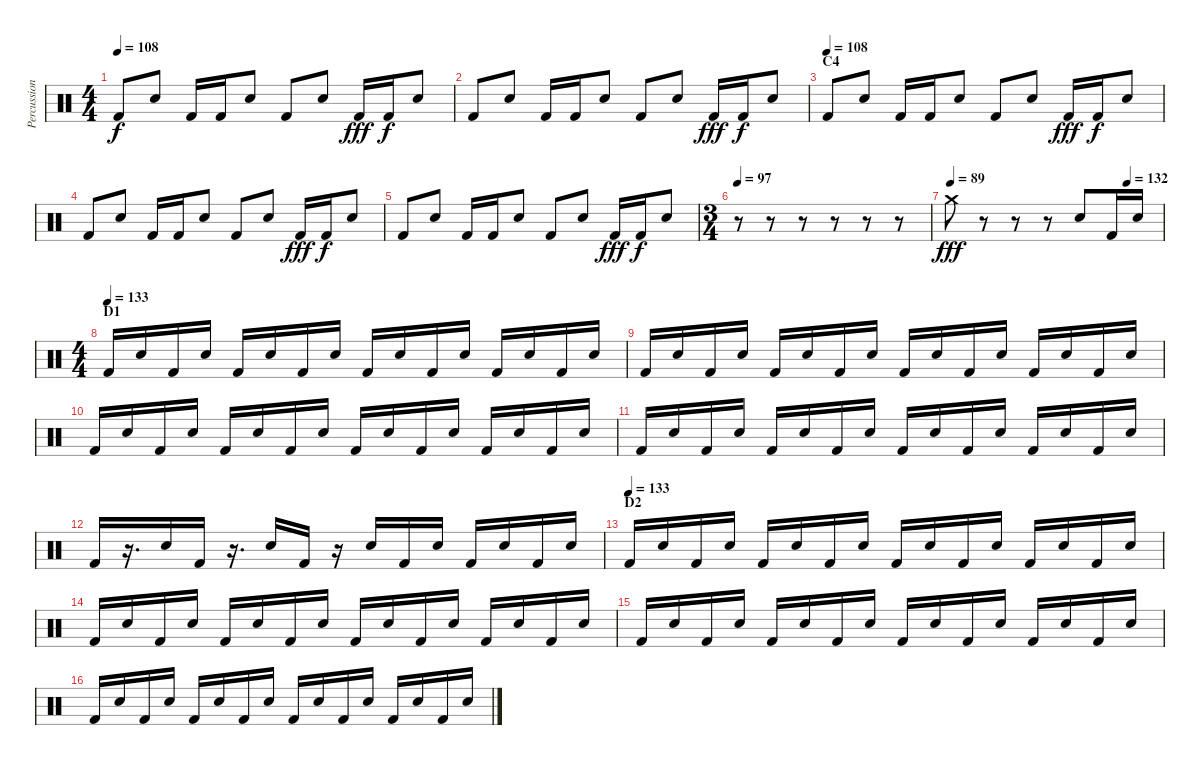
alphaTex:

\track ("Percussion" "Percussion") {instrument percussion}
\staff {score}
\articulation defaults
\ts (4 4)
\tempo 108
\clef neutral
\ks c "Kick (hit) 2".8{dy f} "Electric Snare (hit)".8 "Kick (hit) 2".16 "Kick (hit) 2".16 "Electric Snare (hit)".8 "Kick (hit) 2".8 "Electric Snare (hit)".8 "Kick (hit) 2".16{dy fff} "Kick (hit) 2".16{dy f} "Electric Snare (hit)".8
|
"Kick (hit) 2".8 "Electric Snare (hit)".8 "Kick (hit) 2".16 "Kick (hit) 2".16 "Electric Snare (hit)".8 "Kick (hit) 2".8 "Electric Snare (hit)".8 "Kick (hit) 2".16{dy fff} "Kick (hit) 2".16{dy f} "Electric Snare (hit)".8 |
\section ("" "C4")
\tempo (108)
"Kick (hit) 2".8 "Electric Snare (hit)".8 "Kick (hit) 2".16 "Kick (hit) 2".16 "Electric Snare (hit)".8 "Kick (hit) 2".8 "Electric Snare (hit)".8 "Kick (hit) 2".16{dy fff} "Kick (hit) 2".16{dy f} "Electric Snare (hit)".8 |
"Kick (hit) 2".8 "Electric Snare (hit)".8 "Kick (hit) 2".16 "Kick (hit) 2".16 "Electric Snare (hit)".8 "Kick (hit) 2".8 "Electric Snare (hit)".8 "Kick (hit) 2".16{dy fff} "Kick (hit) 2".16{dy f} "Electric Snare (hit)".8 |
"Kick (hit) 2".8 "Electric Snare (hit)".8 "Kick (hit) 2".16 "Kick (hit) 2".16 "Electric Snare (hit)".8 "Kick (hit) 2".8 "Electric Snare (hit)".8 "Kick (hit) 2".16{dy fff} "Kick (hit) 2".16{dy f} "Electric Snare (hit)".8 |
\ts (3 4)
\tempo 97
r.8 r.8 r.8 r.8 r.8 r.8 |
\tempo 89
\tempo (132 0.8333333333333334)
"Crash medium (hit)".8{dy fff} r.8 r.8 r.8 "Electric Snare (hit)".8 "Kick (hit) 2".16 "Electric Snare (hit)".16 |
\ts (4 4)
\section ("" "D1")
\tempo (133)
"Kick (hit) 2".16 "Electric Snare (hit)".16 "Kick (hit) 2".16 "Electric Snare (hit)".16 "Kick (hit) 2".16 "Electric Snare (hit)".16 "Kick (hit) 2".16 "Electric Snare (hit)".16 "Kick (hit) 2".16 "Electric Snare (hit)".16 "Kick (hit) 2".16 "Electric Snare (hit)".16 "Kick (hit) 2".16 "Electric Snare (hit)".16 "Kick (hit) 2".16 "Electric Snare (hit)".16 |
"Kick (hit) 2".16 "Electric Snare (hit)".16 "Kick (hit) 2".16 "Electric Snare (hit)".16 "Kick (hit) 2".16 "Electric Snare (hit)".16 "Kick (hit) 2".16 "Electric Snare (hit)".16 "Kick (hit) 2".16 "Electric Snare (hit)".16 "Kick (hit) 2".16 "Electric Snare (hit)".16 "Kick (hit) 2".16 "Electric Snare (hit)".16 "Kick (hit) 2".16 "Electric Snare (hit)".16 |
"Kick (hit) 2".16 "Electric Snare (hit)".16 "Kick (hit) 2".16 "Electric Snare (hit)".16 "Kick (hit) 2".16 "Electric Snare (hit)".16 "Kick (hit) 2".16 "Electric Snare (hit)".16 "Kick (hit) 2".16 "Electric Snare (hit)".16 "Kick (hit) 2".16 "Electric Snare (hit)".16 "Kick (hit) 2".16 "Electric Snare (hit)".16 "Kick (hit) 2".16 "Electric Snare (hit)".16 |
"Kick (hit) 2".16 "Electric Snare (hit)".16 "Kick (hit) 2".16 "Electric Snare (hit)".16 "Kick (hit) 2".16 "Electric Snare (hit)".16 "Kick (hit) 2".16 "Electric Snare (hit)".16 "Kick (hit) 2".16 "Electric Snare (hit)".16 "Kick (hit) 2".16 "Electric Snare (hit)".16 "Kick (hit) 2".16 "Electric Snare (hit)".16 "Kick (hit) 2".16 "Electric Snare (hit)".16 |
"Kick (hit) 2".16 r.16{d} "Electric Snare (hit)".16 "Kick (hit) 2".16 r.16{d} "Electric Snare (hit)".16 "Kick (hit) 2".16 r.16 "Electric Snare (hit)".16 "Kick (hit) 2".16 "Electric Snare (hit)".16 "Kick (hit) 2".16 "Electric Snare (hit)".16 "Kick (hit) 2".16 "Electric Snare (hit)".16 |
\section ("" "D2")
\tempo (133)
"Kick (hit) 2".16 "Electric Snare (hit)".16 "Kick (hit) 2".16 "Electric Snare (hit)".16 "Kick (hit) 2".16 "Electric Snare (hit)".16 "Kick (hit) 2".16 "Electric Snare (hit)".16 "Kick (hit) 2".16 "Electric Snare (hit)".16 "Kick (hit) 2".16 "Electric Snare (hit)".16 "Kick (hit) 2".16 "Electric Snare (hit)".16 "Kick (hit) 2".16 "Electric Snare (hit)".16 |
"Kick (hit) 2".16 "Electric Snare (hit)".16 "Kick (hit) 2".16 "Electric Snare (hit)".16 "Kick (hit) 2".16 "Electric Snare (hit)".16 "Kick (hit) 2".16 "Electric Snare (hit)".16 "Kick (hit) 2".16 "Electric Snare (hit)".16 "Kick (hit) 2".16 "Electric Snare (hit)".16 "Kick (hit) 2".16 "Electric Snare (hit)".16 "Kick (hit) 2".16 "Electric Snare (hit)".16 |
"Kick (hit) 2".16 "Electric Snare (hit)".16 "Kick (hit) 2".16 "Electric Snare (hit)".16 "Kick (hit) 2".16 "Electric Snare (hit)".16 "Kick (hit) 2".16 "Electric Snare (hit)".16 "Kick (hit) 2".16 "Electric Snare (hit)".16 "Kick (hit) 2".16 "Electric Snare (hit)".16 "Kick (hit) 2".16 "Electric Snare (hit)".16 "Kick (hit) 2".16 "Electric Snare (hit)".16 |
"Kick (hit) 2".16 "Electric Snare (hit)".16 "Kick (hit) 2".16 "Electric Snare (hit)".16 "Kick (hit) 2".16 "Electric Snare (hit)".16 "Kick (hit) 2".16 "Electric Snare (hit)".16 "Kick (hit) 2".16 "Electric Snare (hit)".16 "Kick (hit) 2".16 "Electric Snare (hit)".16 "Kick (hit) 2".16 "Electric Snare (hit)".16 "Kick (hit) 2".16 "Electric Snare (hit)".16
